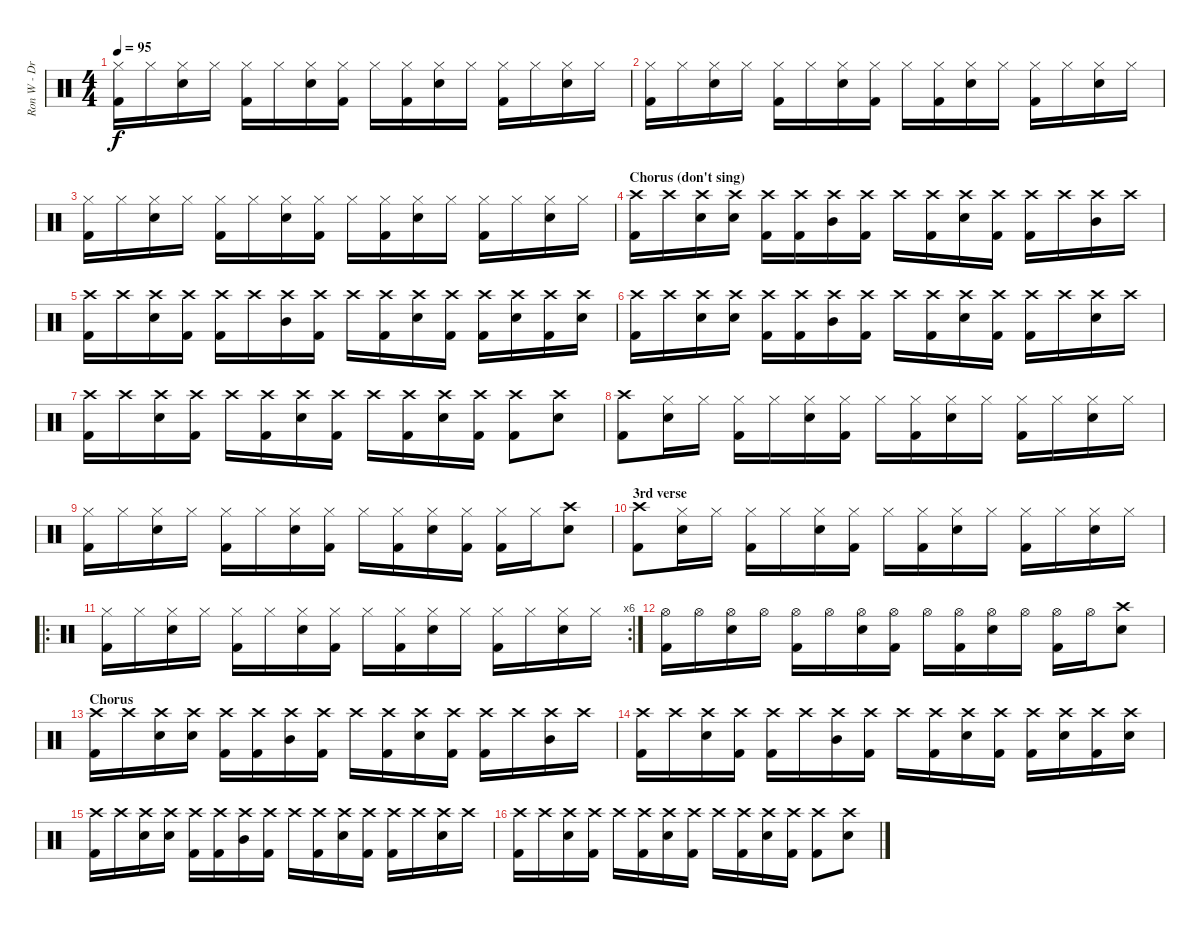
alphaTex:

\track ("Ron W - Drums" "Ron W - Dr") {instrument percussion}
\staff {score}
\articulation defaults
\ts (4 4)
\tempo 95
\clef neutral
\ks c
("Hi-Hat (closed)" "Kick (hit) 2").16{dy f} "Hi-Hat (closed)".16 ("Hi-Hat (closed)" "Electric Snare (hit)").16 "Hi-Hat (closed)".16 ("Hi-Hat (closed)" "Kick (hit) 2").16 "Hi-Hat (closed)".16 ("Hi-Hat (closed)" "Electric Snare (hit)").16 ("Hi-Hat (closed)" "Kick (hit) 2").16 "Hi-Hat (closed)".16 ("Hi-Hat (closed)" "Kick (hit) 2").16 ("Hi-Hat (closed)" "Electric Snare (hit)").16 "Hi-Hat (closed)".16 ("Hi-Hat (closed)" "Kick (hit) 2").16 "Hi-Hat (closed)".16 ("Hi-Hat (closed)" "Electric Snare (hit)").16 "Hi-Hat (closed)".16 |
("Hi-Hat (closed)" "Kick (hit) 2").16 "Hi-Hat (closed)".16 ("Hi-Hat (closed)" "Electric Snare (hit)").16 "Hi-Hat (closed)".16 ("Hi-Hat (closed)" "Kick (hit) 2").16 "Hi-Hat (closed)".16 ("Hi-Hat (closed)" "Electric Snare (hit)").16 ("Hi-Hat (closed)" "Kick (hit) 2").16 "Hi-Hat (closed)".16 ("Hi-Hat (closed)" "Kick (hit) 2").16 ("Hi-Hat (closed)" "Electric Snare (hit)").16 "Hi-Hat (closed)".16 ("Hi-Hat (closed)" "Kick (hit) 2").16 "Hi-Hat (closed)".16 ("Hi-Hat (closed)" "Electric Snare (hit)").16 "Hi-Hat (closed)".16 |
("Hi-Hat (closed)" "Kick (hit) 2").16 "Hi-Hat (closed)".16 ("Hi-Hat (closed)" "Electric Snare (hit)").16 "Hi-Hat (closed)".16 ("Hi-Hat (closed)" "Kick (hit) 2").16 "Hi-Hat (closed)".16 ("Hi-Hat (closed)" "Electric Snare (hit)").16 ("Hi-Hat (closed)" "Kick (hit) 2").16 "Hi-Hat (closed)".16 ("Hi-Hat (closed)" "Kick (hit) 2").16 ("Hi-Hat (closed)" "Electric Snare (hit)").16 "Hi-Hat (closed)".16 ("Hi-Hat (closed)" "Kick (hit) 2").16 "Hi-Hat (closed)".16 ("Hi-Hat (closed)" "Electric Snare (hit)").16 "Hi-Hat (closed)".16 |
\section ("" "Chorus (don't sing)")
("Crash high (hit)" "Kick (hit) 2").16 "Crash high (hit)".16 ("Crash high (hit)" "Electric Snare (hit)").16 ("Crash high (hit)" "Electric Snare (hit)").16 ("Crash high (hit)" "Kick (hit) 2").16 ("Crash high (hit)" "Kick (hit) 2").16 ("Mid Tom (hit)" "Crash high (hit)").16 ("Crash high (hit)" "Kick (hit) 2").16 "Crash high (hit)".16 ("Crash high (hit)" "Kick (hit) 2").16 ("Crash high (hit)" "Electric Snare (hit)").16 ("Crash high (hit)" "Kick (hit) 2").16 ("Crash high (hit)" "Kick (hit) 2").16 "Crash high (hit)".16 ("Mid Tom (hit)" "Crash high (hit)").16 "Crash high (hit)".16 |
("Crash high (hit)" "Kick (hit) 2").16 "Crash high (hit)".16 ("Crash high (hit)" "Electric Snare (hit)").16 ("Crash high (hit)" "Kick (hit) 2").16 ("Crash high (hit)" "Kick (hit) 2").16 "Crash high (hit)".16 ("Mid Tom (hit)" "Crash high (hit)").16 ("Crash high (hit)" "Kick (hit) 2").16 "Crash high (hit)".16 ("Crash high (hit)" "Kick (hit) 2").16 ("Crash high (hit)" "Electric Snare (hit)").16 ("Crash high (hit)" "Kick (hit) 2").16 ("Crash high (hit)" "Kick (hit) 2").16 ("Crash high (hit)" "Electric Snare (hit)").16 ("Crash high (hit)" "Kick (hit) 2").16 ("Crash high (hit)" "Electric Snare (hit)").16 |
("Crash high (hit)" "Kick (hit) 2").16 "Crash high (hit)".16 ("Crash high (hit)" "Electric Snare (hit)").16 ("Crash high (hit)" "Electric Snare (hit)").16 ("Crash high (hit)" "Kick (hit) 2").16 ("Crash high (hit)" "Kick (hit) 2").16 ("Mid Tom (hit)" "Crash high (hit)").16 ("Crash high (hit)" "Kick (hit) 2").16 "Crash high (hit)".16 ("Crash high (hit)" "Kick (hit) 2").16 ("Crash high (hit)" "Electric Snare (hit)").16 ("Crash high (hit)" "Kick (hit) 2").16 ("Crash high (hit)" "Kick (hit) 2").16 "Crash high (hit)".16 ("Crash high (hit)" "Electric Snare (hit)").16 "Crash high (hit)".16 |
("Crash high (hit)" "Kick (hit) 2").16 "Crash high (hit)".16 ("Crash high (hit)" "Electric Snare (hit)").16 ("Crash high (hit)" "Kick (hit) 2").16 "Crash high (hit)".16 ("Crash high (hit)" "Kick (hit) 2").16 ("Crash high (hit)" "Electric Snare (hit)").16 ("Crash high (hit)" "Kick (hit) 2").16 "Crash high (hit)".16 ("Crash high (hit)" "Kick (hit) 2").16 ("Crash high (hit)" "Electric Snare (hit)").16 ("Crash high (hit)" "Kick (hit) 2").16 ("Crash high (hit)" "Kick (hit) 2").8 ("Crash high (hit)" "Electric Snare (hit)").8 |
("Crash high (hit)" "Kick (hit) 2").8 ("Hi-Hat (closed)" "Electric Snare (hit)").16 "Hi-Hat (closed)".16 ("Hi-Hat (closed)" "Kick (hit) 2").16 "Hi-Hat (closed)".16 ("Hi-Hat (closed)" "Electric Snare (hit)").16 ("Hi-Hat (closed)" "Kick (hit) 2").16 "Hi-Hat (closed)".16 ("Hi-Hat (closed)" "Kick (hit) 2").16 ("Hi-Hat (closed)" "Electric Snare (hit)").16 "Hi-Hat (closed)".16 ("Hi-Hat (closed)" "Kick (hit) 2").16 "Hi-Hat (closed)".16 ("Hi-Hat (closed)" "Electric Snare (hit)").16 "Hi-Hat (closed)".16 |
("Hi-Hat (closed)" "Kick (hit) 2").16 "Hi-Hat (closed)".16 ("Hi-Hat (closed)" "Electric Snare (hit)").16 "Hi-Hat (closed)".16 ("Hi-Hat (closed)" "Kick (hit) 2").16 "Hi-Hat (closed)".16 ("Hi-Hat (closed)" "Electric Snare (hit)").16 ("Hi-Hat (closed)" "Kick (hit) 2").16 "Hi-Hat (closed)".16 ("Hi-Hat (closed)" "Kick (hit) 2").16 ("Hi-Hat (closed)" "Electric Snare (hit)").16 ("Hi-Hat (closed)" "Kick (hit) 2").16 ("Hi-Hat (closed)" "Kick (hit) 2").16 "Hi-Hat (closed)".16 ("Crash high (hit)" "Electric Snare (hit)").8 |
\section ("" "3rd verse")
("Crash high (hit)" "Kick (hit) 2").8 ("Hi-Hat (closed)" "Electric Snare (hit)").16 "Hi-Hat (closed)".16 ("Hi-Hat (closed)" "Kick (hit) 2").16 "Hi-Hat (closed)".16 ("Hi-Hat (closed)" "Electric Snare (hit)").16 ("Hi-Hat (closed)" "Kick (hit) 2").16 "Hi-Hat (closed)".16 ("Hi-Hat (closed)" "Kick (hit) 2").16 ("Hi-Hat (closed)" "Electric Snare (hit)").16 "Hi-Hat (closed)".16 ("Hi-Hat (closed)" "Kick (hit) 2").16 "Hi-Hat (closed)".16 ("Hi-Hat (closed)" "Electric Snare (hit)").16 "Hi-Hat (closed)".16 |
\ro
\rc 6
("Hi-Hat (closed)" "Kick (hit) 2").16 "Hi-Hat (closed)".16 ("Hi-Hat (closed)" "Electric Snare (hit)").16 "Hi-Hat (closed)".16 ("Hi-Hat (closed)" "Kick (hit) 2").16 "Hi-Hat (closed)".16 ("Hi-Hat (closed)" "Electric Snare (hit)").16 ("Hi-Hat (closed)" "Kick (hit) 2").16 "Hi-Hat (closed)".16 ("Hi-Hat (closed)" "Kick (hit) 2").16 ("Hi-Hat (closed)" "Electric Snare (hit)").16 "Hi-Hat (closed)".16 ("Hi-Hat (closed)" "Kick (hit) 2").16 "Hi-Hat (closed)".16 ("Hi-Hat (closed)" "Electric Snare (hit)").16 "Hi-Hat (closed)".16 |
("Hi-Hat (open)" "Kick (hit) 2").16 "Hi-Hat (open)".16 ("Hi-Hat (open)" "Electric Snare (hit)").16 "Hi-Hat (open)".16 ("Hi-Hat (open)" "Kick (hit) 2").16 "Hi-Hat (open)".16 ("Hi-Hat (open)" "Electric Snare (hit)").16 ("Hi-Hat (open)" "Kick (hit) 2").16 "Hi-Hat (open)".16 ("Hi-Hat (open)" "Kick (hit) 2").16 ("Hi-Hat (open)" "Electric Snare (hit)").16 "Hi-Hat (open)".16 ("Hi-Hat (open)" "Kick (hit) 2").16 "Hi-Hat (open)".16 ("Crash high (hit)" "Electric Snare (hit)").8 |
\section ("" "Chorus")
("Crash high (hit)" "Kick (hit) 2").16 "Crash high (hit)".16 ("Crash high (hit)" "Electric Snare (hit)").16 ("Crash high (hit)" "Electric Snare (hit)").16 ("Crash high (hit)" "Kick (hit) 2").16 ("Crash high (hit)" "Kick (hit) 2").16 ("Mid Tom (hit)" "Crash high (hit)").16 ("Crash high (hit)" "Kick (hit) 2").16 "Crash high (hit)".16 ("Crash high (hit)" "Kick (hit) 2").16 ("Crash high (hit)" "Electric Snare (hit)").16 ("Crash high (hit)" "Kick (hit) 2").16 ("Crash high (hit)" "Kick (hit) 2").16 "Crash high (hit)".16 ("Mid Tom (hit)" "Crash high (hit)").16 "Crash high (hit)".16 |
("Crash high (hit)" "Kick (hit) 2").16 "Crash high (hit)".16 ("Crash high (hit)" "Electric Snare (hit)").16 ("Crash high (hit)" "Kick (hit) 2").16 ("Crash high (hit)" "Kick (hit) 2").16 "Crash high (hit)".16 ("Mid Tom (hit)" "Crash high (hit)").16 ("Crash high (hit)" "Kick (hit) 2").16 "Crash high (hit)".16 ("Crash high (hit)" "Kick (hit) 2").16 ("Crash high (hit)" "Electric Snare (hit)").16 ("Crash high (hit)" "Kick (hit) 2").16 ("Crash high (hit)" "Kick (hit) 2").16 ("Crash high (hit)" "Electric Snare (hit)").16 ("Crash high (hit)" "Kick (hit) 2").16 ("Crash high (hit)" "Electric Snare (hit)").16 |
("Crash high (hit)" "Kick (hit) 2").16 "Crash high (hit)".16 ("Crash high (hit)" "Electric Snare (hit)").16 ("Crash high (hit)" "Electric Snare (hit)").16 ("Crash high (hit)" "Kick (hit) 2").16 ("Crash high (hit)" "Kick (hit) 2").16 ("Mid Tom (hit)" "Crash high (hit)").16 ("Crash high (hit)" "Kick (hit) 2").16 "Crash high (hit)".16 ("Crash high (hit)" "Kick (hit) 2").16 ("Crash high (hit)" "Electric Snare (hit)").16 ("Crash high (hit)" "Kick (hit) 2").16 ("Crash high (hit)" "Kick (hit) 2").16 "Crash high (hit)".16 ("Crash high (hit)" "Electric Snare (hit)").16 "Crash high (hit)".16 |
("Crash high (hit)" "Kick (hit) 2").16 "Crash high (hit)".16 ("Crash high (hit)" "Electric Snare (hit)").16 ("Crash high (hit)" "Kick (hit) 2").16 "Crash high (hit)".16 ("Crash high (hit)" "Kick (hit) 2").16 ("Crash high (hit)" "Electric Snare (hit)").16 ("Crash high (hit)" "Kick (hit) 2").16 "Crash high (hit)".16 ("Crash high (hit)" "Kick (hit) 2").16 ("Crash high (hit)" "Electric Snare (hit)").16 ("Crash high (hit)" "Kick (hit) 2").16 ("Crash high (hit)" "Kick (hit) 2").8 ("Crash high (hit)" "Electric Snare (hit)").8
